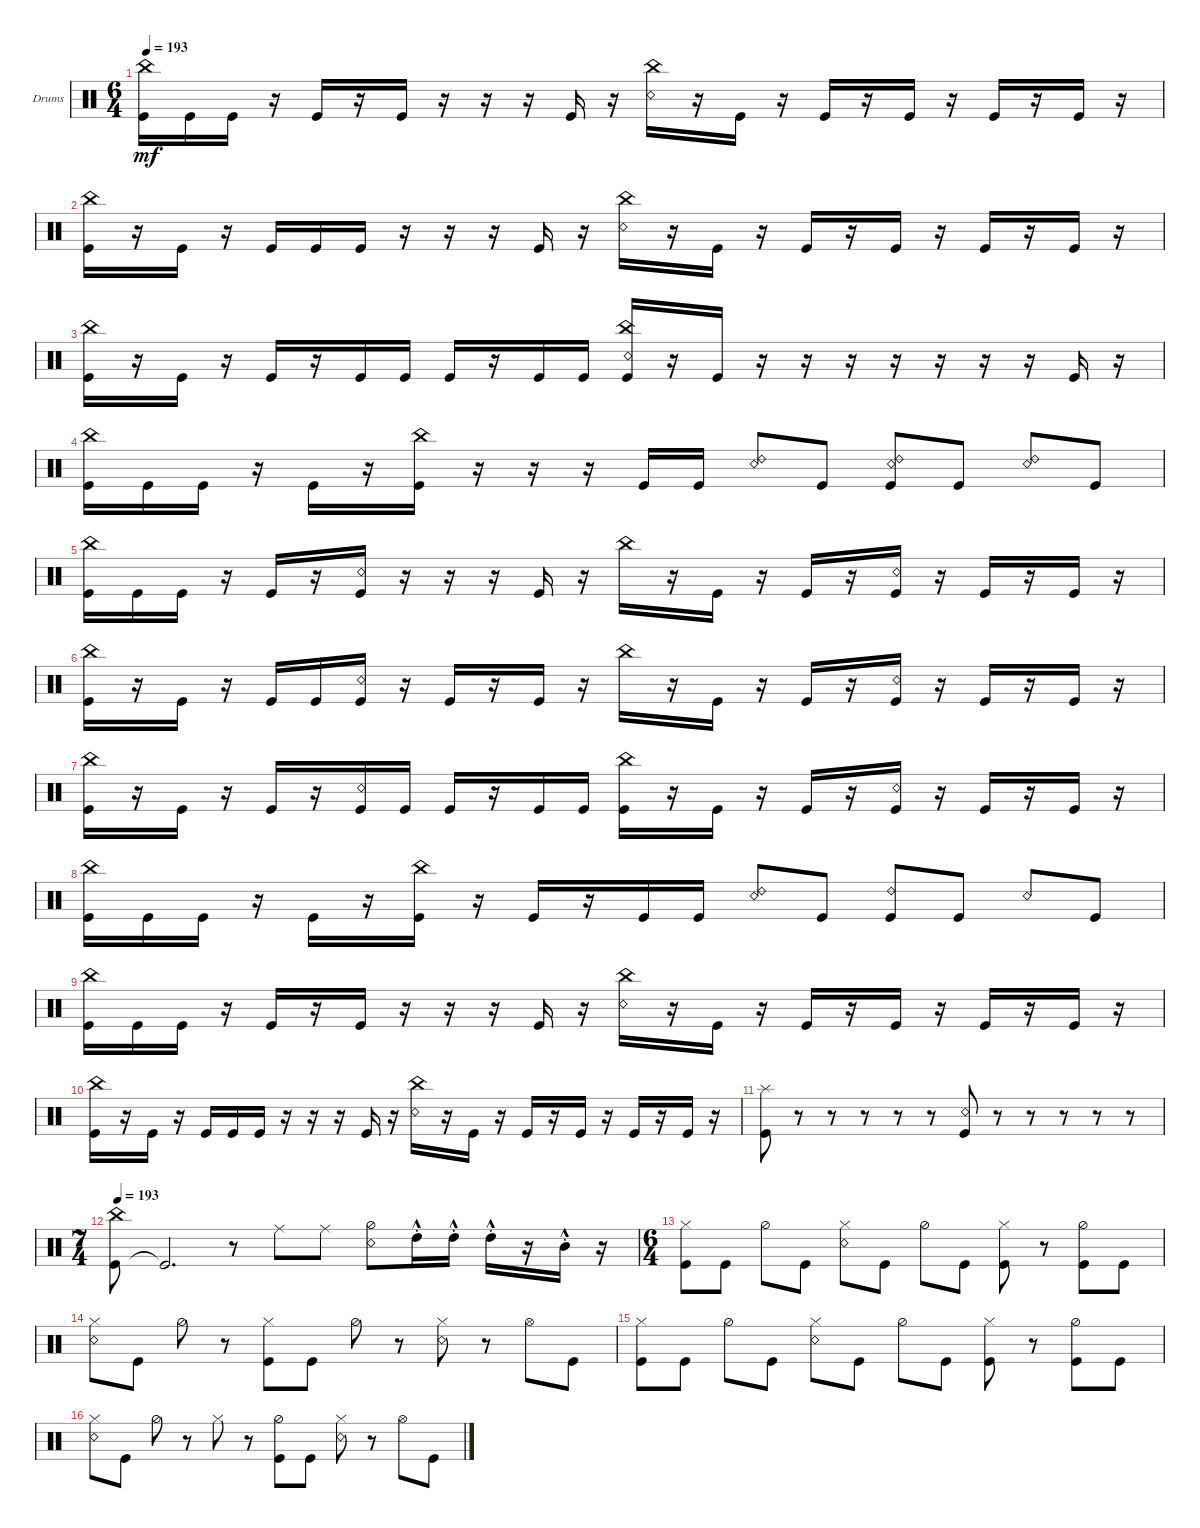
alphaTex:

\defaultSystemsLayout 4
\bracketExtendMode groupsimilarinstruments
\firstSystemTrackNameOrientation horizontal
\otherSystemsTrackNameOrientation horizontal
\track ("Drumkit" "Drums") {multiBarRest instrument percussion}
\staff {score}
\articulation defaults
\ts (6 4)
\tempo 193
\clef neutral
\scale
0.472222
\ks c
("Kick (hit)" "China (hit)").16{dy mf} "Kick (hit)".16 "Kick (hit)".16 r.16 "Kick (hit)".16 r.16 "Kick (hit)".16 r.16 r.16 r.16 "Kick (hit)".16 r.16 ("Snare (rim shot)" "China (hit)").16 r.16 "Kick (hit)".16 r.16 "Kick (hit)".16 r.16 "Kick (hit)".16 r.16 "Kick (hit)".16 r.16 "Kick (hit)".16 r.16 |
\scale
0.263889 ("Kick (hit)" "China (hit)").16 r.16 "Kick (hit)".16 r.16 "Kick (hit)".16 "Kick (hit)".16 "Kick (hit)".16 r.16 r.16 r.16 "Kick (hit)".16 r.16 ("Snare (rim shot)" "China (hit)").16 r.16 "Kick (hit)".16 r.16 "Kick (hit)".16 r.16 "Kick (hit)".16 r.16 "Kick (hit)".16 r.16 "Kick (hit)".16 r.16 |
\scale
0.263889 ("Kick (hit)" "China (hit)").16 r.16 "Kick (hit)".16 r.16 "Kick (hit)".16 r.16 "Kick (hit)".16 "Kick (hit)".16 "Kick (hit)".16 r.16 "Kick (hit)".16 "Kick (hit)".16 ("Kick (hit)" "Snare (rim shot)" "China (hit)").16 r.16 "Kick (hit)".16 r.16 r.16 r.16 r.16 r.16 r.16 r.16 "Kick (hit)".16 r.16 |
\scale
0.333333 ("Kick (hit)" "China (hit)").16 "Kick (hit)".16 "Kick (hit)".16 r.16 "Kick (hit)".16 r.16 ("China (hit)" "Kick (hit)").16 r.16 r.16 r.16 "Kick (hit)".16 "Kick (hit)".16 ("Snare (rim shot)" "Ride (bell) 2").8 "Kick (hit)".8 ("Ride (bell) 2" "Kick (hit)" "Snare (rim shot)").8 "Kick (hit)".8 ("Snare (rim shot)" "Ride (bell) 2").8 "Kick (hit)".8 |
\scale
0.333333 ("Kick (hit)" "China (hit)").16 "Kick (hit)".16 "Kick (hit)".16 r.16 "Kick (hit)".16 r.16 ("Kick (hit)" "Snare (rim shot)").16 r.16 r.16 r.16 "Kick (hit)".16 r.16 "China (hit)".16 r.16 "Kick (hit)".16 r.16 "Kick (hit)".16 r.16 ("Kick (hit)" "Snare (rim shot)").16 r.16 "Kick (hit)".16 r.16 "Kick (hit)".16 r.16 |
\scale
0.333333 ("Kick (hit)" "China (hit)").16 r.16 "Kick (hit)".16 r.16 "Kick (hit)".16 "Kick (hit)".16 ("Kick (hit)" "Snare (rim shot)").16 r.16 "Kick (hit)".16 r.16 "Kick (hit)".16 r.16 "China (hit)".16 r.16 "Kick (hit)".16 r.16 "Kick (hit)".16 r.16 ("Kick (hit)" "Snare (rim shot)").16 r.16 "Kick (hit)".16 r.16 "Kick (hit)".16 r.16 |
\scale
0.333333 ("Kick (hit)" "China (hit)").16 r.16 "Kick (hit)".16 r.16 "Kick (hit)".16 r.16 ("Kick (hit)" "Snare (rim shot)").16 "Kick (hit)".16 "Kick (hit)".16 r.16 "Kick (hit)".16 "Kick (hit)".16 ("Kick (hit)" "China (hit)").16 r.16 "Kick (hit)".16 r.16 "Kick (hit)".16 r.16 ("Kick (hit)" "Snare (rim shot)").16 r.16 "Kick (hit)".16 r.16 "Kick (hit)".16 r.16 |
\scale
0.333333 ("Kick (hit)" "China (hit)").16 "Kick (hit)".16 "Kick (hit)".16 r.16 "Kick (hit)".16 r.16 ("Kick (hit)" "China (hit)").16 r.16 "Kick (hit)".16 r.16 "Kick (hit)".16 "Kick (hit)".16 ("Snare (rim shot)" "Ride (bell) 2").8 "Kick (hit)".8 ("Ride (bell) 2" "Kick (hit)").8 "Kick (hit)".8 "Snare (rim shot)".8 "Kick (hit)".8 |
\scale
0.333333 ("Kick (hit)" "China (hit)").16 "Kick (hit)".16 "Kick (hit)".16 r.16 "Kick (hit)".16 r.16 "Kick (hit)".16 r.16 r.16 r.16 "Kick (hit)".16 r.16 ("Snare (rim shot)" "China (hit)").16 r.16 "Kick (hit)".16 r.16 "Kick (hit)".16 r.16 "Kick (hit)".16 r.16 "Kick (hit)".16 r.16 "Kick (hit)".16 r.16 |
\scale
0.333333 ("Kick (hit)" "China (hit)").16 r.16 "Kick (hit)".16 r.16 "Kick (hit)".16 "Kick (hit)".16 "Kick (hit)".16 r.16 r.16 r.16 "Kick (hit)".16 r.16 ("Snare (rim shot)" "China (hit)").16 r.16 "Kick (hit)".16 r.16 "Kick (hit)".16 r.16 "Kick (hit)".16 r.16 "Kick (hit)".16 r.16 "Kick (hit)".16 r.16 |
\scale
0.333333 ("Kick (hit)" "Splash (hit)").8 r.8 r.8 r.8 r.8 r.8 ("Kick (hit)" "Snare (rim shot)").8 r.8 r.8 r.8 r.8 r.8 |
\ts (7 4)
\tempo 193
\scale
0.333333 ("Kick (hit)" "China (hit)").8 "Kick (hit)"{t}.2{d} r.8 "Ride (middle)".8 "Ride (middle)".8 ("Snare (rim shot)" "Hi-Hat (half)").8 "High Tom (hit)"{hac st}.16 "High Tom (hit)"{hac st}.16 "High Tom (hit)"{hac st}.16 r.16 "Mid Tom (hit)"{hac st}.16 r.16 |
\ts (6 4)
\scale
0.333333 ("Kick (hit)" "Hi-Hat (closed)").8 "Kick (hit)".8 "Hi-Hat (half)".8 "Kick (hit)".8 ("Snare (rim shot)" "Hi-Hat (closed)").8 "Kick (hit)".8 "Hi-Hat (half)".8 "Kick (hit)".8 ("Kick (hit)" "Hi-Hat (closed)").8 r.8 ("Kick (hit)" "Hi-Hat (half)").8 "Kick (hit)".8 |
\scale
0.333333 ("Snare (rim shot)" "Hi-Hat (closed)").8 "Kick (hit)".8 "Hi-Hat (half)".8 r.8 ("Hi-Hat (closed)" "Kick (hit)").8 "Kick (hit)".8 "Hi-Hat (half)".8 r.8 ("Hi-Hat (closed)" "Snare (rim shot)").8 r.8 "Hi-Hat (open)".8 "Kick (hit)".8 |
\scale
0.333333 ("Kick (hit)" "Hi-Hat (closed)").8 "Kick (hit)".8 "Hi-Hat (half)".8 "Kick (hit)".8 ("Snare (rim shot)" "Hi-Hat (closed)").8 "Kick (hit)".8 "Hi-Hat (half)".8 "Kick (hit)".8 ("Kick (hit)" "Hi-Hat (closed)").8 r.8 ("Kick (hit)" "Hi-Hat (half)").8 "Kick (hit)".8 |
\scale
0.333333 ("Snare (rim shot)" "Hi-Hat (closed)").8 "Kick (hit)".8 "Hi-Hat (half)".8 r.8 "Hi-Hat (closed)".8 r.8 ("Hi-Hat (half)" "Kick (hit)").8 "Kick (hit)".8 ("Hi-Hat (closed)" "Snare (rim shot)").8 r.8 "Hi-Hat (open)".8 "Kick (hit)".8
